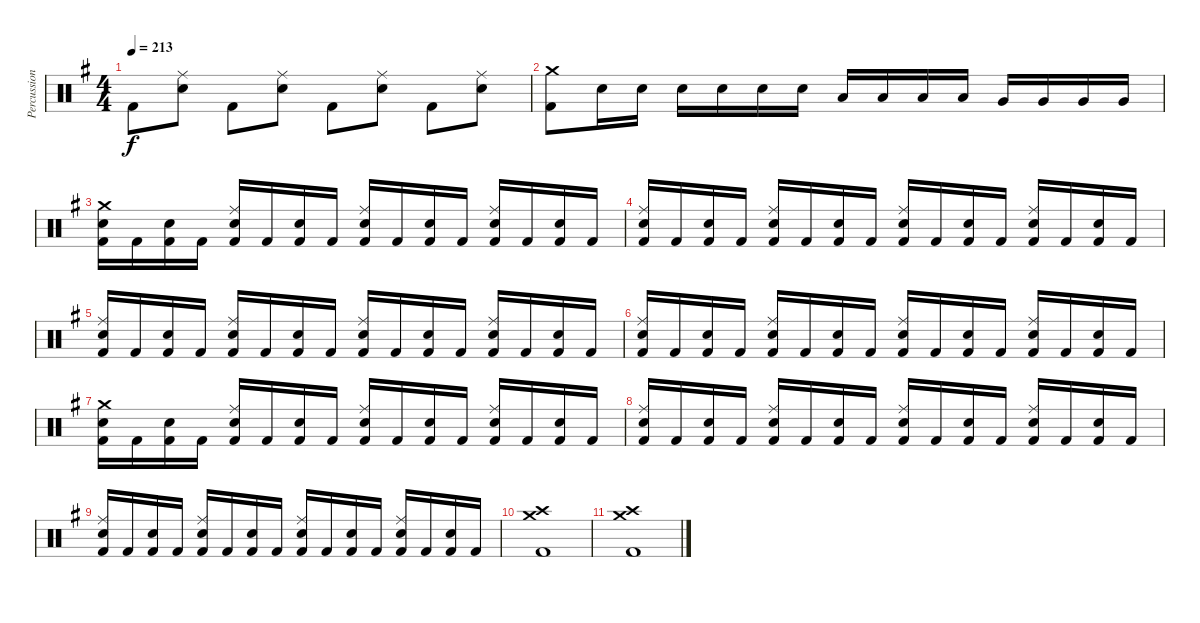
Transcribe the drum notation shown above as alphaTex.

\track ("Percussion" "Percussion") {instrument percussion}
\staff {score}
\articulation defaults
\ts (4 4)
\tempo 213
\clef neutral
\ks eminor "Kick (hit) 2".8{dy f}
("Ride (middle)" "Snare (hit) 2").8 "Kick (hit) 2".8 ("Ride (middle)" "Snare (hit) 2").8 "Kick (hit) 2".8 ("Ride (middle)" "Snare (hit) 2").8 "Kick (hit) 2".8 ("Ride (middle)" "Snare (hit) 2").8 |
("Crash medium (hit)" "Kick (hit) 2").8 "Snare (hit) 2".16 "Snare (hit) 2".16 "Snare (hit) 2".16 "Snare (hit) 2".16 "Snare (hit) 2".16 "Snare (hit) 2".16 "Low Tom (hit)".16 "Low Tom (hit)".16 "Low Tom (hit)".16 "Low Tom (hit)".16 "Very Low Tom (hit)".16 "Very Low Tom (hit)".16 "Very Low Tom (hit)".16 "Very Low Tom (hit)".16 |
("Crash medium (hit)" "Snare (hit) 2" "Kick (hit) 2").16 "Kick (hit) 2".16 ("Snare (hit) 2" "Kick (hit) 2").16 "Kick (hit) 2".16 ("Ride (middle)" "Snare (hit) 2" "Kick (hit) 2").16 "Kick (hit) 2".16 ("Snare (hit) 2" "Kick (hit) 2").16 "Kick (hit) 2".16 ("Ride (middle)" "Snare (hit) 2" "Kick (hit) 2").16 "Kick (hit) 2".16 ("Snare (hit) 2" "Kick (hit) 2").16 "Kick (hit) 2".16 ("Ride (middle)" "Snare (hit) 2" "Kick (hit) 2").16 "Kick (hit) 2".16 ("Snare (hit) 2" "Kick (hit) 2").16 "Kick (hit) 2".16 |
("Ride (middle)" "Snare (hit) 2" "Kick (hit) 2").16 "Kick (hit) 2".16 ("Snare (hit) 2" "Kick (hit) 2").16 "Kick (hit) 2".16 ("Ride (middle)" "Snare (hit) 2" "Kick (hit) 2").16 "Kick (hit) 2".16 ("Snare (hit) 2" "Kick (hit) 2").16 "Kick (hit) 2".16 ("Ride (middle)" "Snare (hit) 2" "Kick (hit) 2").16 "Kick (hit) 2".16 ("Snare (hit) 2" "Kick (hit) 2").16 "Kick (hit) 2".16 ("Ride (middle)" "Snare (hit) 2" "Kick (hit) 2").16 "Kick (hit) 2".16 ("Snare (hit) 2" "Kick (hit) 2").16 "Kick (hit) 2".16 |
("Ride (middle)" "Snare (hit) 2" "Kick (hit) 2").16 "Kick (hit) 2".16 ("Snare (hit) 2" "Kick (hit) 2").16 "Kick (hit) 2".16 ("Ride (middle)" "Snare (hit) 2" "Kick (hit) 2").16 "Kick (hit) 2".16 ("Snare (hit) 2" "Kick (hit) 2").16 "Kick (hit) 2".16 ("Ride (middle)" "Snare (hit) 2" "Kick (hit) 2").16 "Kick (hit) 2".16 ("Snare (hit) 2" "Kick (hit) 2").16 "Kick (hit) 2".16 ("Ride (middle)" "Snare (hit) 2" "Kick (hit) 2").16 "Kick (hit) 2".16 ("Snare (hit) 2" "Kick (hit) 2").16 "Kick (hit) 2".16 |
("Ride (middle)" "Snare (hit) 2" "Kick (hit) 2").16 "Kick (hit) 2".16 ("Snare (hit) 2" "Kick (hit) 2").16 "Kick (hit) 2".16 ("Ride (middle)" "Snare (hit) 2" "Kick (hit) 2").16 "Kick (hit) 2".16 ("Snare (hit) 2" "Kick (hit) 2").16 "Kick (hit) 2".16 ("Ride (middle)" "Snare (hit) 2" "Kick (hit) 2").16 "Kick (hit) 2".16 ("Snare (hit) 2" "Kick (hit) 2").16 "Kick (hit) 2".16 ("Ride (middle)" "Snare (hit) 2" "Kick (hit) 2").16 "Kick (hit) 2".16 ("Snare (hit) 2" "Kick (hit) 2").16 "Kick (hit) 2".16 |
("Crash medium (hit)" "Snare (hit) 2" "Kick (hit) 2").16 "Kick (hit) 2".16 ("Snare (hit) 2" "Kick (hit) 2").16 "Kick (hit) 2".16 ("Ride (middle)" "Snare (hit) 2" "Kick (hit) 2").16 "Kick (hit) 2".16 ("Snare (hit) 2" "Kick (hit) 2").16 "Kick (hit) 2".16 ("Ride (middle)" "Snare (hit) 2" "Kick (hit) 2").16 "Kick (hit) 2".16 ("Snare (hit) 2" "Kick (hit) 2").16 "Kick (hit) 2".16 ("Ride (middle)" "Snare (hit) 2" "Kick (hit) 2").16 "Kick (hit) 2".16 ("Snare (hit) 2" "Kick (hit) 2").16 "Kick (hit) 2".16 |
("Ride (middle)" "Snare (hit) 2" "Kick (hit) 2").16 "Kick (hit) 2".16 ("Snare (hit) 2" "Kick (hit) 2").16 "Kick (hit) 2".16 ("Ride (middle)" "Snare (hit) 2" "Kick (hit) 2").16 "Kick (hit) 2".16 ("Snare (hit) 2" "Kick (hit) 2").16 "Kick (hit) 2".16 ("Ride (middle)" "Snare (hit) 2" "Kick (hit) 2").16 "Kick (hit) 2".16 ("Snare (hit) 2" "Kick (hit) 2").16 "Kick (hit) 2".16 ("Ride (middle)" "Snare (hit) 2" "Kick (hit) 2").16 "Kick (hit) 2".16 ("Snare (hit) 2" "Kick (hit) 2").16 "Kick (hit) 2".16 |
("Ride (middle)" "Snare (hit) 2" "Kick (hit) 2").16 "Kick (hit) 2".16 ("Snare (hit) 2" "Kick (hit) 2").16 "Kick (hit) 2".16 ("Ride (middle)" "Snare (hit) 2" "Kick (hit) 2").16 "Kick (hit) 2".16 ("Snare (hit) 2" "Kick (hit) 2").16 "Kick (hit) 2".16 ("Ride (middle)" "Snare (hit) 2" "Kick (hit) 2").16 "Kick (hit) 2".16 ("Snare (hit) 2" "Kick (hit) 2").16 "Kick (hit) 2".16 ("Ride (middle)" "Snare (hit) 2" "Kick (hit) 2").16 "Kick (hit) 2".16 ("Snare (hit) 2" "Kick (hit) 2").16 "Kick (hit) 2".16 |
("Crash medium (hit)" "Crash high (hit)" "Kick (hit) 2").1 |
("Crash medium (hit)" "Crash high (hit)" "Kick (hit) 2").1
